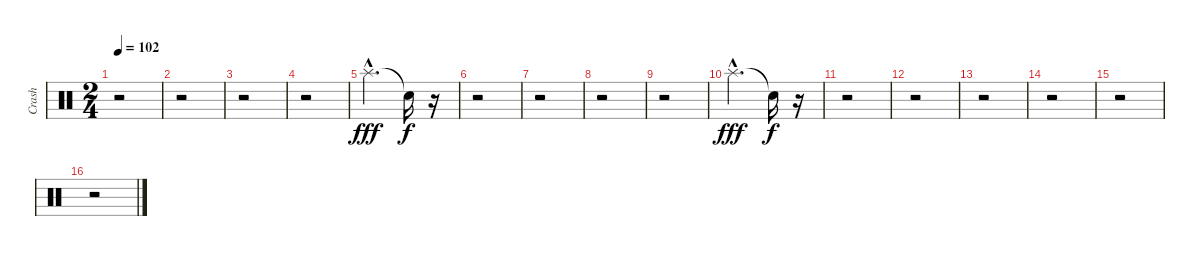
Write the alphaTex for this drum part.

\track ("Crash" "Crash") {instrument percussion}
\staff {score}
\articulation defaults
\ts (2 4)
\tempo 102
\clef neutral
\ks c
r.2{dy f} |
r.2 |
r.2 |
r.2 |
"Splash (hit)"{hac}.4{d dy fff} "Snare (hit)"{t}.16{dy f} r.16 |
r.2 |
r.2 |
r.2 |
r.2 |
"Splash (hit)"{hac}.4{d dy fff} "Snare (hit)"{t}.16{dy f} r.16 |
r.2 |
r.2 |
r.2 |
r.2 |
r.2 |
r.2
